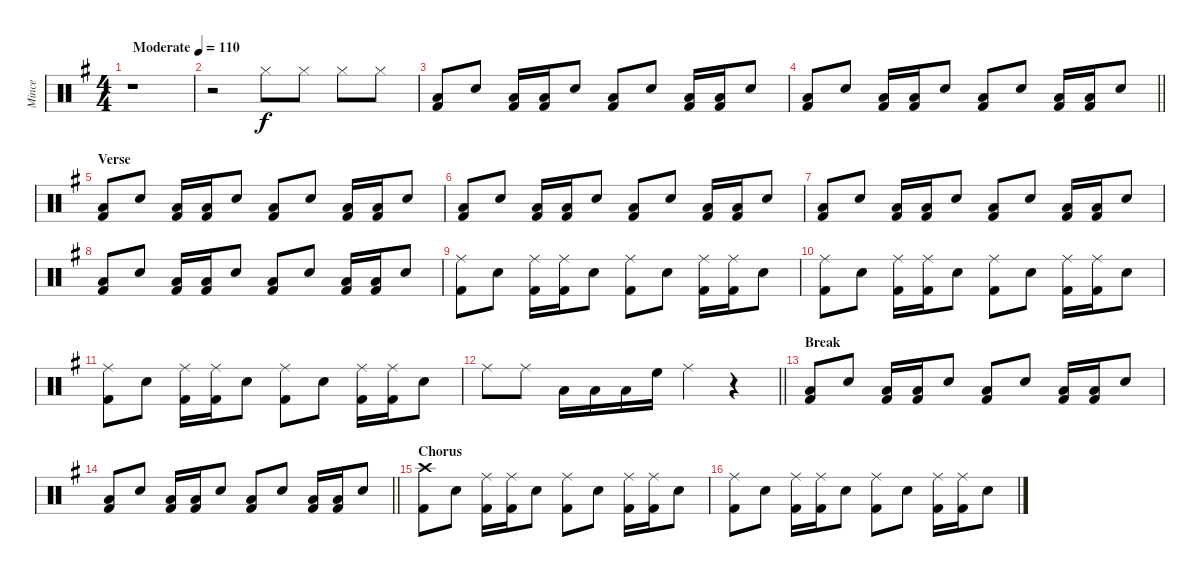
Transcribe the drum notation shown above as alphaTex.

\track ("Mince" "Mince") {instrument percussion}
\staff {score}
\articulation defaults
\ts (4 4)
\tempo (110 "Moderate")
\clef neutral
\ks g
r.1{dy f} |
r.2 "Hi-Hat (closed)".8 "Hi-Hat (closed)".8 "Hi-Hat (closed)".8 "Hi-Hat (closed)".8 |
("Kick (hit) 2" "Low Floor Tom (hit)").8 "Snare (hit) 2".8 ("Kick (hit) 2" "Low Floor Tom (hit)").16 ("Kick (hit) 2" "Low Floor Tom (hit)").16 "Snare (hit) 2".8 ("Kick (hit) 2" "Low Floor Tom (hit)").8 "Snare (hit) 2".8 ("Kick (hit) 2" "Low Floor Tom (hit)").16 ("Kick (hit) 2" "Low Floor Tom (hit)").16 "Snare (hit) 2".8 |
\barLineRight lightlight
("Kick (hit) 2" "Low Floor Tom (hit)").8 "Snare (hit) 2".8 ("Kick (hit) 2" "Low Floor Tom (hit)").16 ("Kick (hit) 2" "Low Floor Tom (hit)").16 "Snare (hit) 2".8 ("Kick (hit) 2" "Low Floor Tom (hit)").8 "Snare (hit) 2".8 ("Kick (hit) 2" "Low Floor Tom (hit)").16 ("Kick (hit) 2" "Low Floor Tom (hit)").16 "Snare (hit) 2".8 |
\section ("" "Verse")
("Kick (hit) 2" "Low Floor Tom (hit)").8 "Snare (hit) 2".8 ("Kick (hit) 2" "Low Floor Tom (hit)").16 ("Kick (hit) 2" "Low Floor Tom (hit)").16 "Snare (hit) 2".8 ("Kick (hit) 2" "Low Floor Tom (hit)").8 "Snare (hit) 2".8 ("Kick (hit) 2" "Low Floor Tom (hit)").16 ("Kick (hit) 2" "Low Floor Tom (hit)").16 "Snare (hit) 2".8 |
("Kick (hit) 2" "Low Floor Tom (hit)").8 "Snare (hit) 2".8 ("Kick (hit) 2" "Low Floor Tom (hit)").16 ("Kick (hit) 2" "Low Floor Tom (hit)").16 "Snare (hit) 2".8 ("Kick (hit) 2" "Low Floor Tom (hit)").8 "Snare (hit) 2".8 ("Kick (hit) 2" "Low Floor Tom (hit)").16 ("Kick (hit) 2" "Low Floor Tom (hit)").16 "Snare (hit) 2".8 |
("Kick (hit) 2" "Low Floor Tom (hit)").8 "Snare (hit) 2".8 ("Kick (hit) 2" "Low Floor Tom (hit)").16 ("Kick (hit) 2" "Low Floor Tom (hit)").16 "Snare (hit) 2".8 ("Kick (hit) 2" "Low Floor Tom (hit)").8 "Snare (hit) 2".8 ("Kick (hit) 2" "Low Floor Tom (hit)").16 ("Kick (hit) 2" "Low Floor Tom (hit)").16 "Snare (hit) 2".8 |
("Kick (hit) 2" "Low Floor Tom (hit)").8 "Snare (hit) 2".8 ("Kick (hit) 2" "Low Floor Tom (hit)").16 ("Kick (hit) 2" "Low Floor Tom (hit)").16 "Snare (hit) 2".8 ("Kick (hit) 2" "Low Floor Tom (hit)").8 "Snare (hit) 2".8 ("Kick (hit) 2" "Low Floor Tom (hit)").16 ("Kick (hit) 2" "Low Floor Tom (hit)").16 "Snare (hit) 2".8 |
("Kick (hit) 2" "Ride (middle)").8 "Snare (hit) 2".8 ("Kick (hit) 2" "Ride (middle)").16 ("Kick (hit) 2" "Ride (middle)").16 "Snare (hit) 2".8 ("Kick (hit) 2" "Ride (middle)").8 "Snare (hit) 2".8 ("Kick (hit) 2" "Ride (middle)").16 ("Kick (hit) 2" "Ride (middle)").16 "Snare (hit) 2".8 |
("Kick (hit) 2" "Ride (middle)").8 "Snare (hit) 2".8 ("Kick (hit) 2" "Ride (middle)").16 ("Kick (hit) 2" "Ride (middle)").16 "Snare (hit) 2".8 ("Kick (hit) 2" "Ride (middle)").8 "Snare (hit) 2".8 ("Kick (hit) 2" "Ride (middle)").16 ("Kick (hit) 2" "Ride (middle)").16 "Snare (hit) 2".8 |
("Kick (hit) 2" "Ride (middle)").8 "Snare (hit) 2".8 ("Kick (hit) 2" "Ride (middle)").16 ("Kick (hit) 2" "Ride (middle)").16 "Snare (hit) 2".8 ("Kick (hit) 2" "Ride (middle)").8 "Snare (hit) 2".8 ("Kick (hit) 2" "Ride (middle)").16 ("Kick (hit) 2" "Ride (middle)").16 "Snare (hit) 2".8 |
\barLineRight lightlight "Ride (middle)".8 "Ride (middle)".8 "Low Floor Tom (hit)".16 "Low Floor Tom (hit)".16 "Low Tom (hit)".16 "High Floor Tom (hit)".16 "Ride (middle)".4
r.4 |
\section ("" "Break")
("Kick (hit) 2" "Low Floor Tom (hit)").8 "Snare (hit) 2".8 ("Kick (hit) 2" "Low Floor Tom (hit)").16 ("Kick (hit) 2" "Low Floor Tom (hit)").16 "Snare (hit) 2".8 ("Kick (hit) 2" "Low Floor Tom (hit)").8 "Snare (hit) 2".8 ("Kick (hit) 2" "Low Floor Tom (hit)").16 ("Kick (hit) 2" "Low Floor Tom (hit)").16 "Snare (hit) 2".8 |
\barLineRight lightlight
("Kick (hit) 2" "Low Floor Tom (hit)").8 "Snare (hit) 2".8 ("Kick (hit) 2" "Low Floor Tom (hit)").16 ("Kick (hit) 2" "Low Floor Tom (hit)").16 "Snare (hit) 2".8 ("Kick (hit) 2" "Low Floor Tom (hit)").8 "Snare (hit) 2".8 ("Kick (hit) 2" "Low Floor Tom (hit)").16 ("Kick (hit) 2" "Low Floor Tom (hit)").16 "Snare (hit) 2".8 |
\section ("" "Chorus")
("Kick (hit) 2" "Crash high (hit)").8 "Snare (hit) 2".8 ("Kick (hit) 2" "Ride (middle)").16 ("Kick (hit) 2" "Ride (middle)").16 "Snare (hit) 2".8 ("Kick (hit) 2" "Ride (middle)").8 "Snare (hit) 2".8 ("Kick (hit) 2" "Ride (middle)").16 ("Kick (hit) 2" "Ride (middle)").16 "Snare (hit) 2".8 |
("Kick (hit) 2" "Ride (middle)").8 "Snare (hit) 2".8 ("Kick (hit) 2" "Ride (middle)").16 ("Kick (hit) 2" "Ride (middle)").16 "Snare (hit) 2".8 ("Kick (hit) 2" "Ride (middle)").8 "Snare (hit) 2".8 ("Kick (hit) 2" "Ride (middle)").16 ("Kick (hit) 2" "Ride (middle)").16 "Snare (hit) 2".8
